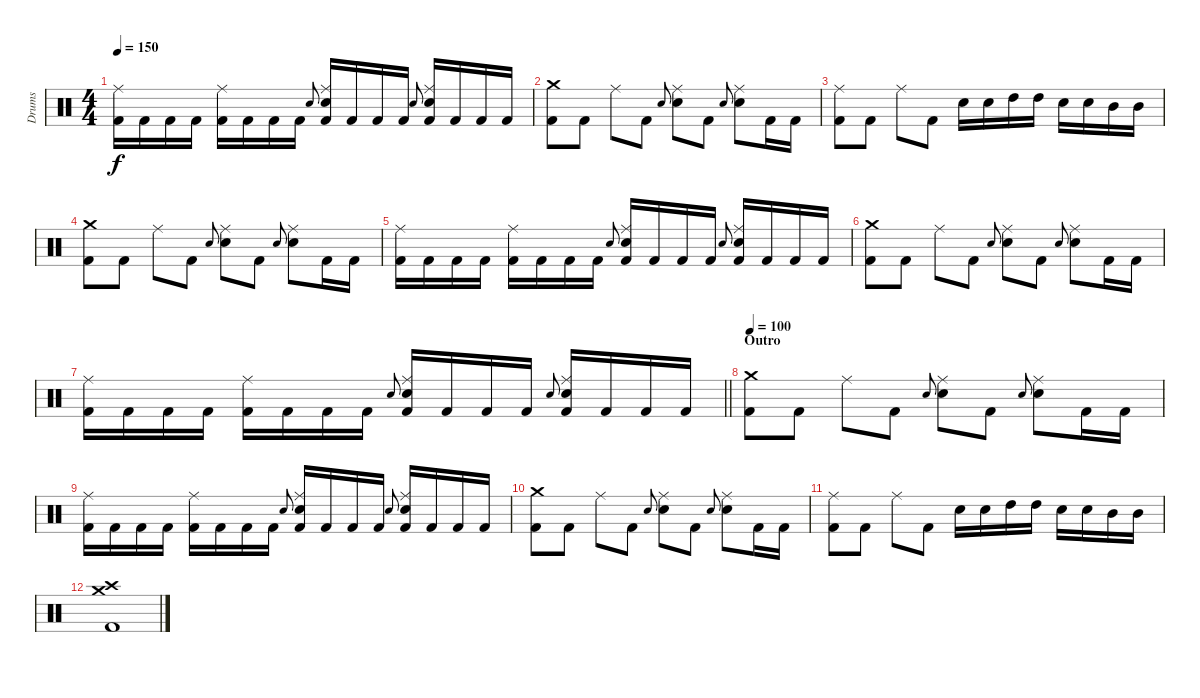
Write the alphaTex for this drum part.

\track ("Drums" "Drums") {instrument percussion}
\staff {score}
\articulation defaults
\ts (4 4)
\tempo 150
\clef neutral
\ks c
("Kick (hit) 2" "Ride (middle)").16{dy f} "Kick (hit) 2".16 "Kick (hit) 2".16 "Kick (hit) 2".16 ("Kick (hit) 2" "Ride (middle)").16 "Kick (hit) 2".16 "Kick (hit) 2".16 "Kick (hit) 2".16 "Snare (hit) 2".8{gr onbeat} ("Kick (hit) 2" "Snare (hit) 2" "Ride (middle)").16 "Kick (hit) 2".16 "Kick (hit) 2".16 "Kick (hit) 2".16 "Snare (hit) 2".8{gr onbeat} ("Kick (hit) 2" "Snare (hit) 2" "Ride (middle)").16 "Kick (hit) 2".16 "Kick (hit) 2".16 "Kick (hit) 2".16 |
("Kick (hit) 2" "Crash medium (hit)").8 "Kick (hit) 2".8 "Ride (middle)".8 "Kick (hit) 2".8 "Snare (hit) 2".8{gr onbeat} ("Snare (hit) 2" "Ride (middle)").8 "Kick (hit) 2".8 "Snare (hit) 2".8{gr onbeat} ("Snare (hit) 2" "Ride (middle)").8 "Kick (hit) 2".16 "Kick (hit) 2".16 |
("Kick (hit) 2" "Ride (middle)").8 "Kick (hit) 2".8 "Ride (middle)".8 "Kick (hit) 2".8 "Snare (hit) 2".16 "Snare (hit) 2".16 "High Tom (hit)".16 "High Tom (hit)".16 "Snare (hit) 2".16 "Snare (hit) 2".16 "Mid Tom (hit)".16 "Mid Tom (hit)".16 |
("Kick (hit) 2" "Crash medium (hit)").8 "Kick (hit) 2".8 "Ride (middle)".8 "Kick (hit) 2".8 "Snare (hit) 2".8{gr onbeat} ("Snare (hit) 2" "Ride (middle)").8 "Kick (hit) 2".8 "Snare (hit) 2".8{gr onbeat} ("Snare (hit) 2" "Ride (middle)").8 "Kick (hit) 2".16 "Kick (hit) 2".16 |
("Kick (hit) 2" "Ride (middle)").16 "Kick (hit) 2".16 "Kick (hit) 2".16 "Kick (hit) 2".16 ("Kick (hit) 2" "Ride (middle)").16 "Kick (hit) 2".16 "Kick (hit) 2".16 "Kick (hit) 2".16 "Snare (hit) 2".8{gr onbeat} ("Kick (hit) 2" "Snare (hit) 2" "Ride (middle)").16 "Kick (hit) 2".16 "Kick (hit) 2".16 "Kick (hit) 2".16 "Snare (hit) 2".8{gr onbeat} ("Kick (hit) 2" "Snare (hit) 2" "Ride (middle)").16 "Kick (hit) 2".16 "Kick (hit) 2".16 "Kick (hit) 2".16 |
("Kick (hit) 2" "Crash medium (hit)").8 "Kick (hit) 2".8 "Ride (middle)".8 "Kick (hit) 2".8 "Snare (hit) 2".8{gr onbeat} ("Snare (hit) 2" "Ride (middle)").8 "Kick (hit) 2".8 "Snare (hit) 2".8{gr onbeat} ("Snare (hit) 2" "Ride (middle)").8 "Kick (hit) 2".16 "Kick (hit) 2".16 |
\barLineRight lightlight
("Kick (hit) 2" "Ride (middle)").16 "Kick (hit) 2".16 "Kick (hit) 2".16 "Kick (hit) 2".16 ("Kick (hit) 2" "Ride (middle)").16 "Kick (hit) 2".16 "Kick (hit) 2".16 "Kick (hit) 2".16 "Snare (hit) 2".8{gr onbeat} ("Kick (hit) 2" "Snare (hit) 2" "Ride (middle)").16 "Kick (hit) 2".16 "Kick (hit) 2".16 "Kick (hit) 2".16 "Snare (hit) 2".8{gr onbeat} ("Kick (hit) 2" "Snare (hit) 2" "Ride (middle)").16 "Kick (hit) 2".16 "Kick (hit) 2".16 "Kick (hit) 2".16 |
\section ("" "Outro")
\tempo 100
("Kick (hit) 2" "Crash medium (hit)").8 "Kick (hit) 2".8 "Ride (middle)".8 "Kick (hit) 2".8 "Snare (hit) 2".8{gr onbeat} ("Snare (hit) 2" "Ride (middle)").8 "Kick (hit) 2".8 "Snare (hit) 2".8{gr onbeat} ("Snare (hit) 2" "Ride (middle)").8 "Kick (hit) 2".16 "Kick (hit) 2".16 |
("Kick (hit) 2" "Ride (middle)").16 "Kick (hit) 2".16 "Kick (hit) 2".16 "Kick (hit) 2".16 ("Kick (hit) 2" "Ride (middle)").16 "Kick (hit) 2".16 "Kick (hit) 2".16 "Kick (hit) 2".16 "Snare (hit) 2".8{gr onbeat} ("Kick (hit) 2" "Snare (hit) 2" "Ride (middle)").16 "Kick (hit) 2".16 "Kick (hit) 2".16 "Kick (hit) 2".16 "Snare (hit) 2".8{gr onbeat} ("Kick (hit) 2" "Snare (hit) 2" "Ride (middle)").16 "Kick (hit) 2".16 "Kick (hit) 2".16 "Kick (hit) 2".16 |
("Kick (hit) 2" "Crash medium (hit)").8 "Kick (hit) 2".8 "Ride (middle)".8 "Kick (hit) 2".8 "Snare (hit) 2".8{gr onbeat} ("Snare (hit) 2" "Ride (middle)").8 "Kick (hit) 2".8 "Snare (hit) 2".8{gr onbeat} ("Snare (hit) 2" "Ride (middle)").8 "Kick (hit) 2".16 "Kick (hit) 2".16 |
("Kick (hit) 2" "Ride (middle)").8 "Kick (hit) 2".8 "Ride (middle)".8 "Kick (hit) 2".8 "Snare (hit) 2".16 "Snare (hit) 2".16 "High Tom (hit)".16 "High Tom (hit)".16 "Snare (hit) 2".16 "Snare (hit) 2".16 "Mid Tom (hit)".16 "Mid Tom (hit)".16 |
("Kick (hit) 2" "Crash high (hit)" "Crash medium (hit)").1
